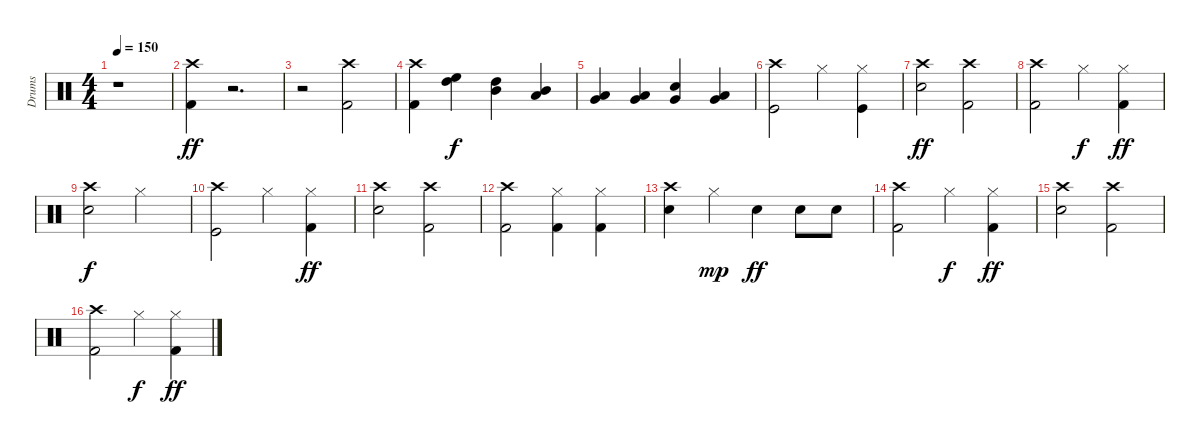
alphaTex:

\track ("Drums" "Drums") {instrument percussion}
\staff {score}
\articulation defaults
\ts (4 4)
\tempo 150
\clef neutral
\ks c
r.1{dy ff} |
("Kick (hit) 2" "Crash high (hit)").4 r.2{d} |
r.2 ("Kick (hit) 2" "Crash high (hit)").2 |
("Kick (hit) 2" "Crash high (hit)").4 ("High Floor Tom (hit)" "High Tom (hit)").4{dy f} ("High Tom (hit)" "Mid Tom (hit)").4 ("Mid Tom (hit)" "Low Tom (hit)").4 |
("Low Tom (hit)" "Very Low Tom (hit)").4 ("Very Low Tom (hit)" "Low Floor Tom (hit)").4 ("Very Low Tom (hit)" "Snare (hit) 2").4 ("Very Low Tom (hit)" "Low Floor Tom (hit)").4 |
("Crash high (hit)" "Kick (hit)").2 "Hi-Hat (closed)".4 ("Hi-Hat (closed)" "Kick (hit)").4 |
("Crash high (hit)" "Snare (hit) 2").2{dy ff} ("Crash high (hit)" "Kick (hit) 2").2 |
("Crash high (hit)" "Kick (hit) 2").2 "Hi-Hat (closed)".4{dy f} ("Hi-Hat (closed)" "Kick (hit) 2").4{dy ff} |
("Crash high (hit)" "Snare (hit) 2").2{dy f} "Hi-Hat (closed)".2 |
("Crash high (hit)" "Kick (hit)").2 "Hi-Hat (closed)".4 ("Hi-Hat (closed)" "Kick (hit) 2").4{dy ff} |
("Crash high (hit)" "Snare (hit) 2").2 ("Crash high (hit)" "Kick (hit) 2").2 |
("Crash high (hit)" "Kick (hit) 2").2 ("Kick (hit) 2" "Hi-Hat (closed)").4 ("Hi-Hat (closed)" "Kick (hit) 2").4 |
("Snare (hit) 2" "Crash high (hit)").4 "Hi-Hat (closed)".4{dy mp} "Snare (hit) 2".4{dy ff} "Snare (hit) 2".8 "Snare (hit) 2".8 |
("Crash high (hit)" "Kick (hit) 2").2 "Hi-Hat (closed)".4{dy f} ("Hi-Hat (closed)" "Kick (hit) 2").4{dy ff} |
("Crash high (hit)" "Snare (hit) 2").2 ("Crash high (hit)" "Kick (hit) 2").2 |
("Crash high (hit)" "Kick (hit) 2").2 "Hi-Hat (closed)".4{dy f} ("Hi-Hat (closed)" "Kick (hit) 2").4{dy ff}
